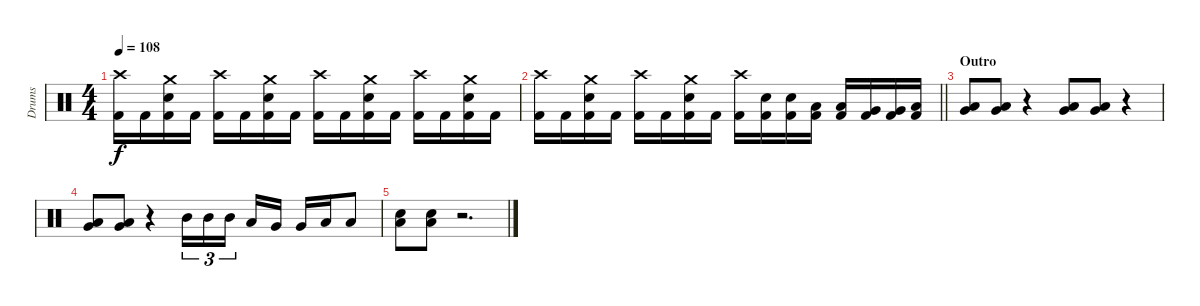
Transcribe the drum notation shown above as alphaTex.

\track ("Drums" "Drums") {instrument percussion}
\staff {score}
\articulation defaults
\ts (4 4)
\tempo 108
\clef neutral
\ks c
("Crash high (hit)" "Kick (hit) 2").16{dy f} "Kick (hit) 2".16 ("Crash medium (hit)" "Electric Snare (hit)" "Kick (hit) 2").16 "Kick (hit) 2".16 ("Crash high (hit)" "Kick (hit) 2").16 "Kick (hit) 2".16 ("Crash medium (hit)" "Electric Snare (hit)" "Kick (hit) 2").16 "Kick (hit) 2".16 ("Crash high (hit)" "Kick (hit) 2").16 "Kick (hit) 2".16 ("Crash medium (hit)" "Electric Snare (hit)" "Kick (hit) 2").16 "Kick (hit) 2".16 ("Crash high (hit)" "Kick (hit) 2").16 "Kick (hit) 2".16 ("Crash medium (hit)" "Electric Snare (hit)" "Kick (hit) 2").16 "Kick (hit) 2".16 |
\barLineRight lightlight
("Crash high (hit)" "Kick (hit) 2").16 "Kick (hit) 2".16 ("Crash medium (hit)" "Electric Snare (hit)" "Kick (hit) 2").16 "Kick (hit) 2".16 ("Crash high (hit)" "Kick (hit) 2").16 "Kick (hit) 2".16 ("Crash medium (hit)" "Electric Snare (hit)" "Kick (hit) 2").16 "Kick (hit) 2".16 ("Crash high (hit)" "Kick (hit) 2").16 ("Electric Snare (hit)" "Kick (hit) 2").16 ("Electric Snare (hit)" "Kick (hit) 2").16 ("Low Tom (hit)" "Kick (hit) 2").16 ("Low Tom (hit)" "Kick (hit) 2").16 ("Very Low Tom (hit)" "Kick (hit) 2").16 ("Very Low Tom (hit)" "Kick (hit) 2").16 ("Low Floor Tom (hit)" "Kick (hit) 2").16 |
\section ("" "Outro")
("Very Low Tom (hit)" "Low Floor Tom (hit)").8 ("Very Low Tom (hit)" "Low Floor Tom (hit)").8 r.4 ("Very Low Tom (hit)" "Low Floor Tom (hit)").8 ("Very Low Tom (hit)" "Low Floor Tom (hit)").8 r.4 |
("Very Low Tom (hit)" "Low Floor Tom (hit)").8 ("Very Low Tom (hit)" "Low Floor Tom (hit)").8 r.4 "Mid Tom (hit)".16{tu (3 2)} "Mid Tom (hit)".16{tu (3 2)} "Mid Tom (hit)".16{tu (3 2) beam splitsecondary} "Low Tom (hit)".16 "Very Low Tom (hit)".16 "Very Low Tom (hit)".16 "Low Floor Tom (hit)".16 "Low Floor Tom (hit)".8 |
("Low Floor Tom (hit)" "Electric Snare (hit)").8 ("Low Floor Tom (hit)" "Electric Snare (hit)").8 r.2{d}
